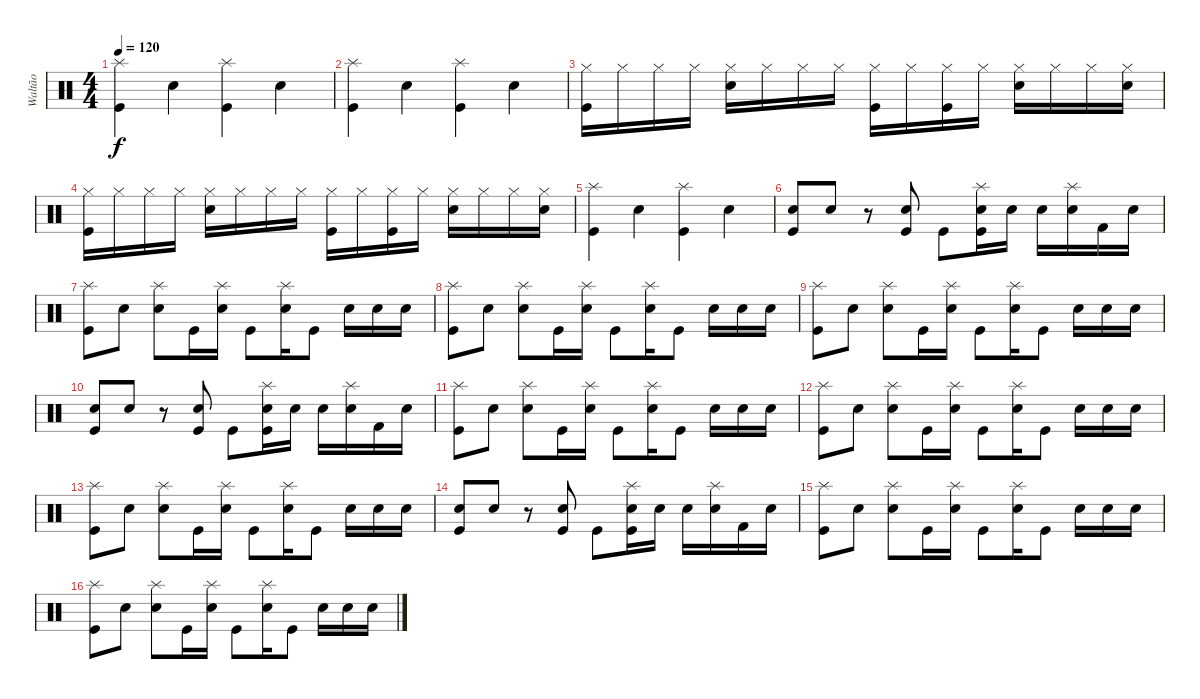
\track ("Waltão" "Waltão") {instrument percussion}
\staff {score}
\articulation defaults
\ts (4 4)
\tempo 120
\clef neutral
\ks c
("Splash (hit)" "Kick (hit)").4{dy f} "Electric Snare (hit)".4 ("Splash (hit)" "Kick (hit)").4 "Electric Snare (hit)".4 |
("Splash (hit)" "Kick (hit)").4 "Electric Snare (hit)".4 ("Splash (hit)" "Kick (hit)").4 "Electric Snare (hit)".4 |
("Kick (hit)" "Hi-Hat (closed)").16 "Hi-Hat (closed)".16 "Hi-Hat (closed)".16 "Hi-Hat (closed)".16 ("Electric Snare (hit)" "Hi-Hat (closed)").16 "Hi-Hat (closed)".16 "Hi-Hat (closed)".16 "Hi-Hat (closed)".16 ("Kick (hit)" "Hi-Hat (closed)").16 "Hi-Hat (closed)".16 ("Kick (hit)" "Hi-Hat (closed)").16 "Hi-Hat (closed)".16 ("Electric Snare (hit)" "Hi-Hat (closed)").16 "Hi-Hat (closed)".16 "Hi-Hat (closed)".16 ("Electric Snare (hit)" "Hi-Hat (closed)").16 |
("Kick (hit)" "Hi-Hat (closed)").16 "Hi-Hat (closed)".16 "Hi-Hat (closed)".16 "Hi-Hat (closed)".16 ("Electric Snare (hit)" "Hi-Hat (closed)").16 "Hi-Hat (closed)".16 "Hi-Hat (closed)".16 "Hi-Hat (closed)".16 ("Kick (hit)" "Hi-Hat (closed)").16 "Hi-Hat (closed)".16 ("Kick (hit)" "Hi-Hat (closed)").16 "Hi-Hat (closed)".16 ("Electric Snare (hit)" "Hi-Hat (closed)").16 "Hi-Hat (closed)".16 "Hi-Hat (closed)".16 ("Electric Snare (hit)" "Hi-Hat (closed)").16 |
("Splash (hit)" "Kick (hit)").4 "Electric Snare (hit)".4 ("Splash (hit)" "Kick (hit)").4 "Electric Snare (hit)".4 |
("Electric Snare (hit)" "Kick (hit)").8 "Electric Snare (hit)".8 r.8 ("Electric Snare (hit)" "Kick (hit)").8 "Kick (hit)".8 ("Splash (hit)" "Electric Snare (hit)" "Kick (hit)").16 "Snare (hit) 2".16 "Electric Snare (hit)".16 ("Splash (hit)" "Snare (hit) 2").16 "Kick (hit) 2".16 "Snare (hit) 2".16 |
("Splash (hit)" "Kick (hit)").8 "Electric Snare (hit)".8 ("Splash (hit)" "Electric Snare (hit)").8 "Kick (hit)".16 ("Splash (hit)" "Electric Snare (hit)").16 "Kick (hit)".8 ("Splash (hit)" "Electric Snare (hit)").16 "Kick (hit)".8 "Electric Snare (hit)".16 "Electric Snare (hit)".16 "Electric Snare (hit)".16 |
("Splash (hit)" "Kick (hit)").8 "Electric Snare (hit)".8 ("Splash (hit)" "Electric Snare (hit)").8 "Kick (hit)".16 ("Splash (hit)" "Electric Snare (hit)").16 "Kick (hit)".8 ("Splash (hit)" "Electric Snare (hit)").16 "Kick (hit)".8 "Electric Snare (hit)".16 "Electric Snare (hit)".16 "Electric Snare (hit)".16 |
("Splash (hit)" "Kick (hit)").8 "Electric Snare (hit)".8 ("Splash (hit)" "Electric Snare (hit)").8 "Kick (hit)".16 ("Splash (hit)" "Electric Snare (hit)").16 "Kick (hit)".8 ("Splash (hit)" "Electric Snare (hit)").16 "Kick (hit)".8 "Electric Snare (hit)".16 "Electric Snare (hit)".16 "Electric Snare (hit)".16 |
("Electric Snare (hit)" "Kick (hit)").8 "Electric Snare (hit)".8 r.8 ("Electric Snare (hit)" "Kick (hit)").8 "Kick (hit)".8 ("Splash (hit)" "Electric Snare (hit)" "Kick (hit)").16 "Snare (hit) 2".16 "Electric Snare (hit)".16 ("Splash (hit)" "Snare (hit) 2").16 "Kick (hit) 2".16 "Snare (hit) 2".16 |
("Splash (hit)" "Kick (hit)").8 "Electric Snare (hit)".8 ("Splash (hit)" "Electric Snare (hit)").8 "Kick (hit)".16 ("Splash (hit)" "Electric Snare (hit)").16 "Kick (hit)".8 ("Splash (hit)" "Electric Snare (hit)").16 "Kick (hit)".8 "Electric Snare (hit)".16 "Electric Snare (hit)".16 "Electric Snare (hit)".16 |
("Splash (hit)" "Kick (hit)").8 "Electric Snare (hit)".8 ("Splash (hit)" "Electric Snare (hit)").8 "Kick (hit)".16 ("Splash (hit)" "Electric Snare (hit)").16 "Kick (hit)".8 ("Splash (hit)" "Electric Snare (hit)").16 "Kick (hit)".8 "Electric Snare (hit)".16 "Electric Snare (hit)".16 "Electric Snare (hit)".16 |
("Splash (hit)" "Kick (hit)").8 "Electric Snare (hit)".8 ("Splash (hit)" "Electric Snare (hit)").8 "Kick (hit)".16 ("Splash (hit)" "Electric Snare (hit)").16 "Kick (hit)".8 ("Splash (hit)" "Electric Snare (hit)").16 "Kick (hit)".8 "Electric Snare (hit)".16 "Electric Snare (hit)".16 "Electric Snare (hit)".16 |
("Electric Snare (hit)" "Kick (hit)").8 "Electric Snare (hit)".8 r.8 ("Electric Snare (hit)" "Kick (hit)").8 "Kick (hit)".8 ("Splash (hit)" "Electric Snare (hit)" "Kick (hit)").16 "Snare (hit) 2".16 "Electric Snare (hit)".16 ("Splash (hit)" "Snare (hit) 2").16 "Kick (hit) 2".16 "Snare (hit) 2".16 |
("Splash (hit)" "Kick (hit)").8 "Electric Snare (hit)".8 ("Splash (hit)" "Electric Snare (hit)").8 "Kick (hit)".16 ("Splash (hit)" "Electric Snare (hit)").16 "Kick (hit)".8 ("Splash (hit)" "Electric Snare (hit)").16 "Kick (hit)".8 "Electric Snare (hit)".16 "Electric Snare (hit)".16 "Electric Snare (hit)".16 |
("Splash (hit)" "Kick (hit)").8 "Electric Snare (hit)".8 ("Splash (hit)" "Electric Snare (hit)").8 "Kick (hit)".16 ("Splash (hit)" "Electric Snare (hit)").16 "Kick (hit)".8 ("Splash (hit)" "Electric Snare (hit)").16 "Kick (hit)".8 "Electric Snare (hit)".16 "Electric Snare (hit)".16 "Electric Snare (hit)".16
